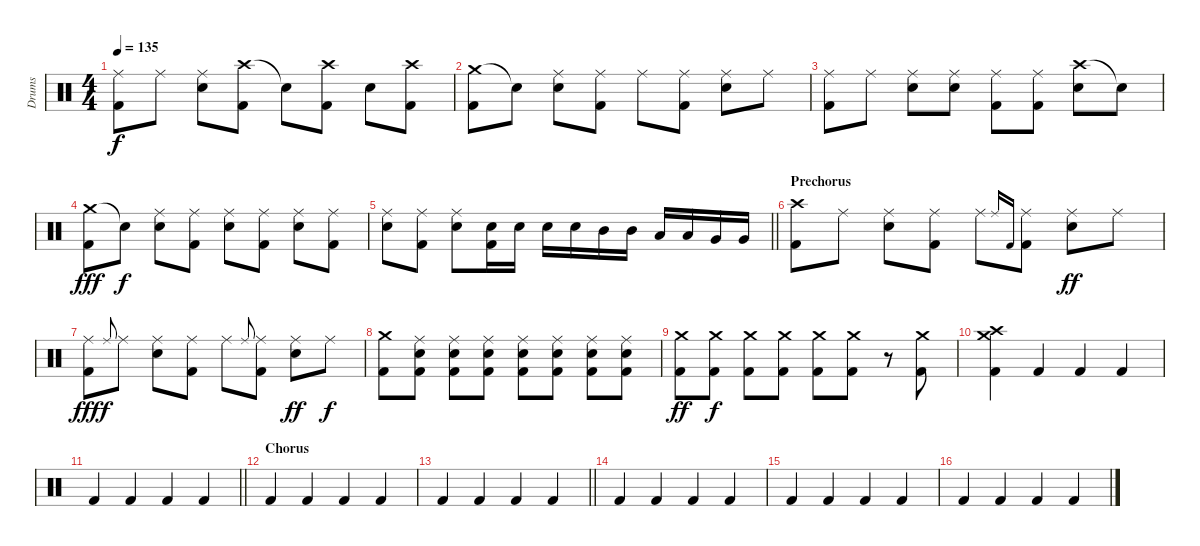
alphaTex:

\track ("Drums" "Drums") {instrument percussion}
\staff {score}
\articulation defaults
\ts (4 4)
\tempo 135
\clef neutral
\ks c
("Ride (middle)" "Kick (hit) 2").8{dy f} "Ride (middle)".8 ("Ride (middle)" "Snare (hit) 2").8 ("Crash high (hit)" "Kick (hit) 2").8 "Snare (hit)"{t}.8 ("Crash high (hit)" "Kick (hit) 2").8 "Snare (hit) 2".8 ("Crash high (hit)" "Kick (hit) 2").8 |
("Crash medium (hit)" "Kick (hit) 2").8 "Snare (hit)"{t}.8 ("Ride (middle)" "Snare (hit) 2").8 ("Ride (middle)" "Kick (hit) 2").8 "Ride (middle)".8 ("Ride (middle)" "Kick (hit) 2").8 ("Ride (middle)" "Snare (hit) 2").8 "Ride (middle)".8 |
("Ride (middle)" "Kick (hit) 2").8 "Ride (middle)".8 ("Ride (middle)" "Snare (hit) 2").8 ("Ride (middle)" "Snare (hit) 2").8 ("Ride (middle)" "Kick (hit) 2").8 ("Ride (middle)" "Kick (hit) 2").8 ("Crash high (hit)" "Snare (hit) 2").8 "Snare (hit)"{t}.8 |
("Crash medium (hit)" "Kick (hit) 2").8{dy fff} "Snare (hit)"{t}.8{dy f} ("Ride (middle)" "Snare (hit) 2").8 ("Ride (middle)" "Kick (hit) 2").8 ("Ride (middle)" "Snare (hit) 2").8 ("Ride (middle)" "Kick (hit) 2").8 ("Ride (middle)" "Snare (hit) 2").8 ("Ride (middle)" "Kick (hit) 2").8 |
\barLineRight lightlight
("Ride (middle)" "Snare (hit) 2").8 ("Ride (middle)" "Kick (hit) 2").8 ("Ride (middle)" "Snare (hit) 2").8 ("Snare (hit) 2" "Kick (hit) 2").16 "Snare (hit) 2".16 "Snare (hit) 2".16 "Snare (hit) 2".16 "Mid Tom (hit)".16 "Mid Tom (hit)".16 "Low Tom (hit)".16 "Low Tom (hit)".16 "Very Low Tom (hit)".16 "Very Low Tom (hit)".16 |
\section ("" "Prechorus")
("Crash high (hit)" "Kick (hit) 2").8 "Ride (middle)".8 ("Ride (middle)" "Snare (hit) 2").8 ("Ride (middle)" "Kick (hit) 2").8 "Ride (middle)".8 "Ride (middle)".16{gr onbeat} "Kick (hit) 2".16{gr onbeat} ("Ride (middle)" "Kick (hit) 2").8 ("Ride (middle)" "Snare (hit) 2").8{dy ff} "Ride (middle)".8 |
("Ride (middle)" "Kick (hit) 2").8{dy fff} "Ride (middle)".8{gr onbeat dy f} "Ride (middle)".8 ("Ride (middle)" "Snare (hit) 2").8 ("Ride (middle)" "Kick (hit) 2").8 "Ride (middle)".8 "Ride (middle)".8{gr onbeat} ("Ride (middle)" "Kick (hit) 2").8 ("Ride (middle)" "Snare (hit) 2").8{dy ff} "Ride (middle)".8{dy f} |
("Crash medium (hit)" "Kick (hit) 2").8 ("Ride (middle)" "Snare (hit) 2" "Kick (hit) 2").8 ("Ride (middle)" "Snare (hit) 2" "Kick (hit) 2").8 ("Ride (middle)" "Snare (hit) 2" "Kick (hit) 2").8 ("Ride (middle)" "Snare (hit) 2" "Kick (hit) 2").8 ("Ride (middle)" "Snare (hit) 2" "Kick (hit) 2").8 ("Ride (middle)" "Snare (hit) 2" "Kick (hit) 2").8 ("Ride (middle)" "Snare (hit) 2" "Kick (hit) 2").8 |
("Crash medium (hit)" "Kick (hit) 2").8{dy ff} ("Crash medium (hit)" "Kick (hit) 2").8{dy f} ("Crash medium (hit)" "Kick (hit) 2").8 ("Crash medium (hit)" "Kick (hit) 2").8 ("Crash medium (hit)" "Kick (hit) 2").8 ("Crash medium (hit)" "Kick (hit) 2").8 r.8 ("Crash medium (hit)" "Kick (hit) 2").8 |
("Crash medium (hit)" "Crash high (hit)" "Kick (hit) 2").4 "Kick (hit) 2".4 "Kick (hit) 2".4 "Kick (hit) 2".4 |
\barLineRight lightlight "Kick (hit) 2".4 "Kick (hit) 2".4 "Kick (hit) 2".4 "Kick (hit) 2".4
|
\section ("" "Chorus")
"Kick (hit) 2".4 "Kick (hit) 2".4 "Kick (hit) 2".4 "Kick (hit) 2".4 |
\barLineRight lightlight "Kick (hit) 2".4 "Kick (hit) 2".4 "Kick (hit) 2".4 "Kick (hit) 2".4
|
"Kick (hit) 2".4 "Kick (hit) 2".4 "Kick (hit) 2".4 "Kick (hit) 2".4 |
"Kick (hit) 2".4 "Kick (hit) 2".4 "Kick (hit) 2".4 "Kick (hit) 2".4 |
"Kick (hit) 2".4 "Kick (hit) 2".4 "Kick (hit) 2".4 "Kick (hit) 2".4
